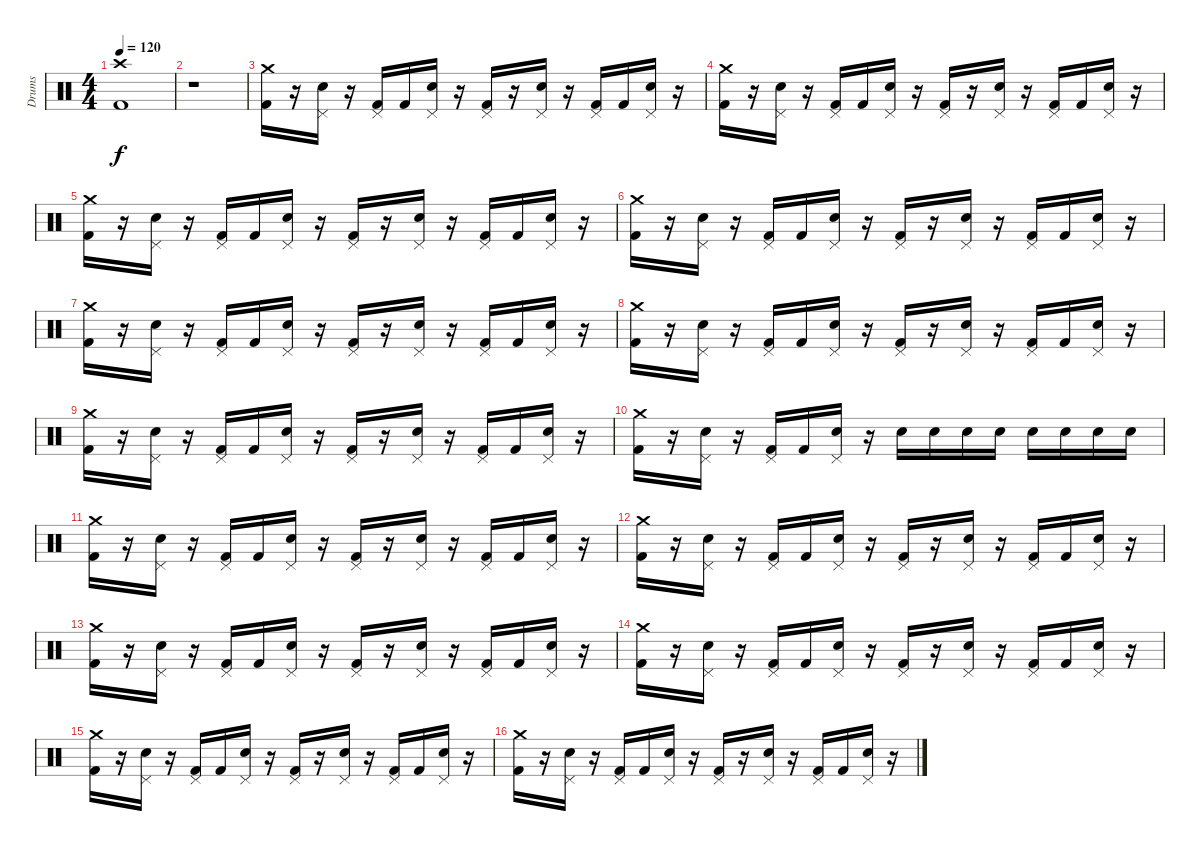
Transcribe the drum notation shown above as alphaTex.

\track ("Drums" "Drums") {instrument percussion}
\staff {score}
\articulation defaults
\ts (4 4)
\tempo 120
\clef neutral
\ks c
("Crash high (hit)" "Kick (hit) 2").1{dy f} |
r.1 |
("Crash medium (hit)" "Kick (hit) 2").16 r.16 ("Pedal Hi-Hat (hit)" "Snare (hit) 2").16 r.16 ("Pedal Hi-Hat (hit)" "Kick (hit) 2").16 "Kick (hit) 2".16 ("Pedal Hi-Hat (hit)" "Snare (hit) 2").16 r.16 ("Pedal Hi-Hat (hit)" "Kick (hit) 2").16 r.16 ("Pedal Hi-Hat (hit)" "Snare (hit) 2").16 r.16 ("Pedal Hi-Hat (hit)" "Kick (hit) 2").16 "Kick (hit) 2".16 ("Pedal Hi-Hat (hit)" "Snare (hit) 2").16 r.16 |
("Crash medium (hit)" "Kick (hit) 2").16 r.16 ("Pedal Hi-Hat (hit)" "Snare (hit) 2").16 r.16 ("Pedal Hi-Hat (hit)" "Kick (hit) 2").16 "Kick (hit) 2".16 ("Pedal Hi-Hat (hit)" "Snare (hit) 2").16 r.16 ("Pedal Hi-Hat (hit)" "Kick (hit) 2").16 r.16 ("Pedal Hi-Hat (hit)" "Snare (hit) 2").16 r.16 ("Pedal Hi-Hat (hit)" "Kick (hit) 2").16 "Kick (hit) 2".16 ("Pedal Hi-Hat (hit)" "Snare (hit) 2").16 r.16 |
("Crash medium (hit)" "Kick (hit) 2").16 r.16 ("Pedal Hi-Hat (hit)" "Snare (hit) 2").16 r.16 ("Pedal Hi-Hat (hit)" "Kick (hit) 2").16 "Kick (hit) 2".16 ("Pedal Hi-Hat (hit)" "Snare (hit) 2").16 r.16 ("Pedal Hi-Hat (hit)" "Kick (hit) 2").16 r.16 ("Pedal Hi-Hat (hit)" "Snare (hit) 2").16 r.16 ("Pedal Hi-Hat (hit)" "Kick (hit) 2").16 "Kick (hit) 2".16 ("Pedal Hi-Hat (hit)" "Snare (hit) 2").16 r.16 |
("Crash medium (hit)" "Kick (hit) 2").16 r.16 ("Pedal Hi-Hat (hit)" "Snare (hit) 2").16 r.16 ("Pedal Hi-Hat (hit)" "Kick (hit) 2").16 "Kick (hit) 2".16 ("Pedal Hi-Hat (hit)" "Snare (hit) 2").16 r.16 ("Pedal Hi-Hat (hit)" "Kick (hit) 2").16 r.16 ("Pedal Hi-Hat (hit)" "Snare (hit) 2").16 r.16 ("Pedal Hi-Hat (hit)" "Kick (hit) 2").16 "Kick (hit) 2".16 ("Pedal Hi-Hat (hit)" "Snare (hit) 2").16 r.16 |
("Crash medium (hit)" "Kick (hit) 2").16 r.16 ("Pedal Hi-Hat (hit)" "Snare (hit) 2").16 r.16 ("Pedal Hi-Hat (hit)" "Kick (hit) 2").16 "Kick (hit) 2".16 ("Pedal Hi-Hat (hit)" "Snare (hit) 2").16 r.16 ("Pedal Hi-Hat (hit)" "Kick (hit) 2").16 r.16 ("Pedal Hi-Hat (hit)" "Snare (hit) 2").16 r.16 ("Pedal Hi-Hat (hit)" "Kick (hit) 2").16 "Kick (hit) 2".16 ("Pedal Hi-Hat (hit)" "Snare (hit) 2").16 r.16 |
("Crash medium (hit)" "Kick (hit) 2").16 r.16 ("Pedal Hi-Hat (hit)" "Snare (hit) 2").16 r.16 ("Pedal Hi-Hat (hit)" "Kick (hit) 2").16 "Kick (hit) 2".16 ("Pedal Hi-Hat (hit)" "Snare (hit) 2").16 r.16 ("Pedal Hi-Hat (hit)" "Kick (hit) 2").16 r.16 ("Pedal Hi-Hat (hit)" "Snare (hit) 2").16 r.16 ("Pedal Hi-Hat (hit)" "Kick (hit) 2").16 "Kick (hit) 2".16 ("Pedal Hi-Hat (hit)" "Snare (hit) 2").16 r.16 |
("Crash medium (hit)" "Kick (hit) 2").16 r.16 ("Pedal Hi-Hat (hit)" "Snare (hit) 2").16 r.16 ("Pedal Hi-Hat (hit)" "Kick (hit) 2").16 "Kick (hit) 2".16 ("Pedal Hi-Hat (hit)" "Snare (hit) 2").16 r.16 ("Pedal Hi-Hat (hit)" "Kick (hit) 2").16 r.16 ("Pedal Hi-Hat (hit)" "Snare (hit) 2").16 r.16 ("Pedal Hi-Hat (hit)" "Kick (hit) 2").16 "Kick (hit) 2".16 ("Pedal Hi-Hat (hit)" "Snare (hit) 2").16 r.16 |
("Crash medium (hit)" "Kick (hit) 2").16 r.16 ("Pedal Hi-Hat (hit)" "Snare (hit) 2").16 r.16 ("Pedal Hi-Hat (hit)" "Kick (hit) 2").16 "Kick (hit) 2".16 ("Pedal Hi-Hat (hit)" "Snare (hit) 2").16 r.16 "Snare (hit) 2".16 "Snare (hit) 2".16 "Snare (hit) 2".16 "Snare (hit) 2".16 "Snare (hit) 2".16 "Snare (hit) 2".16 "Snare (hit) 2".16 "Snare (hit) 2".16 |
("Crash medium (hit)" "Kick (hit) 2").16 r.16 ("Pedal Hi-Hat (hit)" "Snare (hit) 2").16 r.16 ("Pedal Hi-Hat (hit)" "Kick (hit) 2").16 "Kick (hit) 2".16 ("Pedal Hi-Hat (hit)" "Snare (hit) 2").16 r.16 ("Pedal Hi-Hat (hit)" "Kick (hit) 2").16 r.16 ("Pedal Hi-Hat (hit)" "Snare (hit) 2").16 r.16 ("Pedal Hi-Hat (hit)" "Kick (hit) 2").16 "Kick (hit) 2".16 ("Pedal Hi-Hat (hit)" "Snare (hit) 2").16 r.16 |
("Crash medium (hit)" "Kick (hit) 2").16 r.16 ("Pedal Hi-Hat (hit)" "Snare (hit) 2").16 r.16 ("Pedal Hi-Hat (hit)" "Kick (hit) 2").16 "Kick (hit) 2".16 ("Pedal Hi-Hat (hit)" "Snare (hit) 2").16 r.16 ("Pedal Hi-Hat (hit)" "Kick (hit) 2").16 r.16 ("Pedal Hi-Hat (hit)" "Snare (hit) 2").16 r.16 ("Pedal Hi-Hat (hit)" "Kick (hit) 2").16 "Kick (hit) 2".16 ("Pedal Hi-Hat (hit)" "Snare (hit) 2").16 r.16 |
("Crash medium (hit)" "Kick (hit) 2").16 r.16 ("Pedal Hi-Hat (hit)" "Snare (hit) 2").16 r.16 ("Pedal Hi-Hat (hit)" "Kick (hit) 2").16 "Kick (hit) 2".16 ("Pedal Hi-Hat (hit)" "Snare (hit) 2").16 r.16 ("Pedal Hi-Hat (hit)" "Kick (hit) 2").16 r.16 ("Pedal Hi-Hat (hit)" "Snare (hit) 2").16 r.16 ("Pedal Hi-Hat (hit)" "Kick (hit) 2").16 "Kick (hit) 2".16 ("Pedal Hi-Hat (hit)" "Snare (hit) 2").16 r.16 |
("Crash medium (hit)" "Kick (hit) 2").16 r.16 ("Pedal Hi-Hat (hit)" "Snare (hit) 2").16 r.16 ("Pedal Hi-Hat (hit)" "Kick (hit) 2").16 "Kick (hit) 2".16 ("Pedal Hi-Hat (hit)" "Snare (hit) 2").16 r.16 ("Pedal Hi-Hat (hit)" "Kick (hit) 2").16 r.16 ("Pedal Hi-Hat (hit)" "Snare (hit) 2").16 r.16 ("Pedal Hi-Hat (hit)" "Kick (hit) 2").16 "Kick (hit) 2".16 ("Pedal Hi-Hat (hit)" "Snare (hit) 2").16 r.16 |
("Crash medium (hit)" "Kick (hit) 2").16 r.16 ("Pedal Hi-Hat (hit)" "Snare (hit) 2").16 r.16 ("Pedal Hi-Hat (hit)" "Kick (hit) 2").16 "Kick (hit) 2".16 ("Pedal Hi-Hat (hit)" "Snare (hit) 2").16 r.16 ("Pedal Hi-Hat (hit)" "Kick (hit) 2").16 r.16 ("Pedal Hi-Hat (hit)" "Snare (hit) 2").16 r.16 ("Pedal Hi-Hat (hit)" "Kick (hit) 2").16 "Kick (hit) 2".16 ("Pedal Hi-Hat (hit)" "Snare (hit) 2").16 r.16 |
("Crash medium (hit)" "Kick (hit) 2").16 r.16 ("Pedal Hi-Hat (hit)" "Snare (hit) 2").16 r.16 ("Pedal Hi-Hat (hit)" "Kick (hit) 2").16 "Kick (hit) 2".16 ("Pedal Hi-Hat (hit)" "Snare (hit) 2").16 r.16 ("Pedal Hi-Hat (hit)" "Kick (hit) 2").16 r.16 ("Pedal Hi-Hat (hit)" "Snare (hit) 2").16 r.16 ("Pedal Hi-Hat (hit)" "Kick (hit) 2").16 "Kick (hit) 2".16 ("Pedal Hi-Hat (hit)" "Snare (hit) 2").16 r.16
